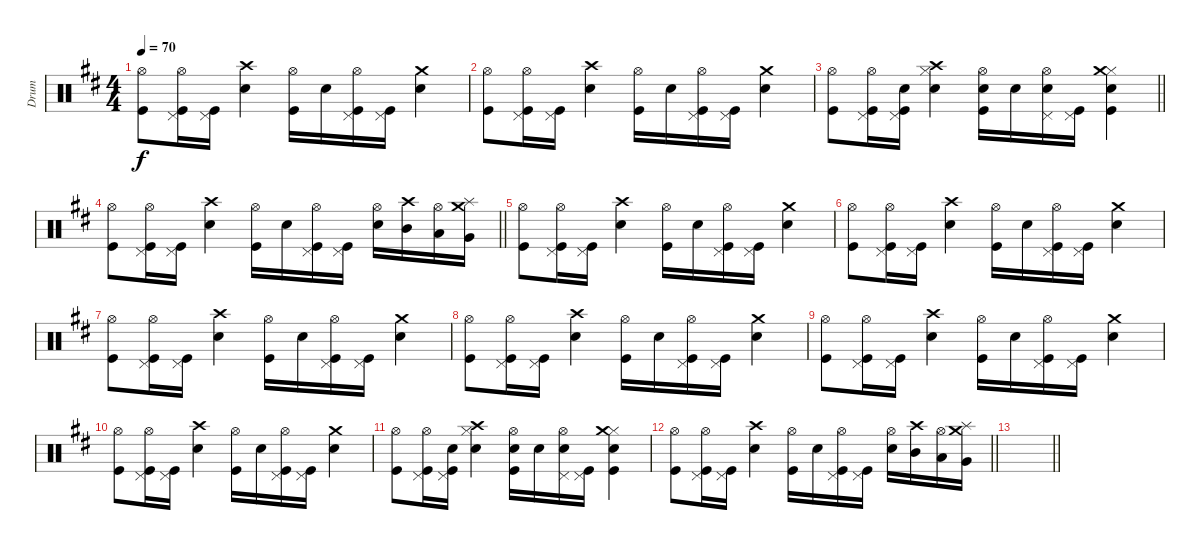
\track ("Drum" "Drum") {instrument percussion}
\staff {score}
\articulation defaults
\ts (4 4)
\tempo 70
\clef neutral
\ks d
("Kick (hit)" "Hi-Hat (open)").8{dy f} ("Kick (hit)" "Pedal Hi-Hat (hit)" "Hi-Hat (open)").16 ("Kick (hit)" "Pedal Hi-Hat (hit)").16 ("Snare (hit) 2" "Crash high (hit)").4 ("Kick (hit)" "Hi-Hat (open)").16 "Snare (hit) 2".16 ("Kick (hit)" "Pedal Hi-Hat (hit)" "Hi-Hat (open)").16 ("Kick (hit)" "Pedal Hi-Hat (hit)").16 ("Snare (hit) 2" "Crash medium (hit)").4 |
("Kick (hit)" "Hi-Hat (open)").8 ("Kick (hit)" "Pedal Hi-Hat (hit)" "Hi-Hat (open)").16 ("Kick (hit)" "Pedal Hi-Hat (hit)").16 ("Snare (hit) 2" "Crash high (hit)").4 ("Kick (hit)" "Hi-Hat (open)").16 "Snare (hit) 2".16 ("Kick (hit)" "Pedal Hi-Hat (hit)" "Hi-Hat (open)").16 ("Kick (hit)" "Pedal Hi-Hat (hit)").16 ("Snare (hit) 2" "Crash medium (hit)").4 |
\barLineRight lightlight
("Kick (hit)" "Hi-Hat (open)").8 ("Kick (hit)" "Pedal Hi-Hat (hit)" "Hi-Hat (open)").16 ("Kick (hit)" "Snare (hit) 2" "Pedal Hi-Hat (hit)").16 ("Snare (hit) 2" "Hi-Hat (closed)" "Crash high (hit)").4 ("Kick (hit)" "Snare (hit) 2" "Hi-Hat (open)").16 "Snare (hit) 2".16 ("Pedal Hi-Hat (hit)" "Snare (hit) 2" "Hi-Hat (open)").16 ("Kick (hit)" "Pedal Hi-Hat (hit)").16 ("Snare (hit) 2" "Kick (hit)" "Hi-Hat (closed)" "Crash medium (hit)").4 |
\barLineRight lightlight
("Kick (hit)" "Hi-Hat (open)").8 ("Kick (hit)" "Pedal Hi-Hat (hit)" "Hi-Hat (open)").16 ("Kick (hit)" "Pedal Hi-Hat (hit)").16 ("Snare (hit) 2" "Crash high (hit)").4 ("Kick (hit)" "Hi-Hat (open)").16 "Snare (hit) 2".16 ("Kick (hit)" "Pedal Hi-Hat (hit)" "Hi-Hat (open)").16 ("Kick (hit)" "Pedal Hi-Hat (hit)").16 ("Hi-Hat (open)" "Snare (hit) 2").16 ("Crash high (hit)" "Mid Tom (hit)").16 ("Hi-Hat (open)" "Low Tom (hit)").16 ("Splash (hit)" "Crash medium (hit)" "Very Low Tom (hit)").16 |
("Kick (hit)" "Hi-Hat (open)").8 ("Kick (hit)" "Pedal Hi-Hat (hit)" "Hi-Hat (open)").16 ("Kick (hit)" "Pedal Hi-Hat (hit)").16 ("Snare (hit) 2" "Crash high (hit)").4 ("Kick (hit)" "Hi-Hat (open)").16 "Snare (hit) 2".16 ("Kick (hit)" "Pedal Hi-Hat (hit)" "Hi-Hat (open)").16 ("Kick (hit)" "Pedal Hi-Hat (hit)").16 ("Snare (hit) 2" "Crash medium (hit)").4 |
("Kick (hit)" "Hi-Hat (open)").8 ("Kick (hit)" "Pedal Hi-Hat (hit)" "Hi-Hat (open)").16 ("Kick (hit)" "Pedal Hi-Hat (hit)").16 ("Snare (hit) 2" "Crash high (hit)").4 ("Kick (hit)" "Hi-Hat (open)").16 "Snare (hit) 2".16 ("Kick (hit)" "Pedal Hi-Hat (hit)" "Hi-Hat (open)").16 ("Kick (hit)" "Pedal Hi-Hat (hit)").16 ("Snare (hit) 2" "Crash medium (hit)").4 |
("Kick (hit)" "Hi-Hat (open)").8 ("Kick (hit)" "Pedal Hi-Hat (hit)" "Hi-Hat (open)").16 ("Kick (hit)" "Pedal Hi-Hat (hit)").16 ("Snare (hit) 2" "Crash high (hit)").4 ("Kick (hit)" "Hi-Hat (open)").16 "Snare (hit) 2".16 ("Kick (hit)" "Pedal Hi-Hat (hit)" "Hi-Hat (open)").16 ("Kick (hit)" "Pedal Hi-Hat (hit)").16 ("Snare (hit) 2" "Crash medium (hit)").4 |
("Kick (hit)" "Hi-Hat (open)").8 ("Kick (hit)" "Pedal Hi-Hat (hit)" "Hi-Hat (open)").16 ("Kick (hit)" "Pedal Hi-Hat (hit)").16 ("Snare (hit) 2" "Crash high (hit)").4 ("Kick (hit)" "Hi-Hat (open)").16 "Snare (hit) 2".16 ("Kick (hit)" "Pedal Hi-Hat (hit)" "Hi-Hat (open)").16 ("Kick (hit)" "Pedal Hi-Hat (hit)").16 ("Snare (hit) 2" "Crash medium (hit)").4 |
("Kick (hit)" "Hi-Hat (open)").8 ("Kick (hit)" "Pedal Hi-Hat (hit)" "Hi-Hat (open)").16 ("Kick (hit)" "Pedal Hi-Hat (hit)").16 ("Snare (hit) 2" "Crash high (hit)").4 ("Kick (hit)" "Hi-Hat (open)").16 "Snare (hit) 2".16 ("Kick (hit)" "Pedal Hi-Hat (hit)" "Hi-Hat (open)").16 ("Kick (hit)" "Pedal Hi-Hat (hit)").16 ("Snare (hit) 2" "Crash medium (hit)").4 |
("Kick (hit)" "Hi-Hat (open)").8 ("Kick (hit)" "Pedal Hi-Hat (hit)" "Hi-Hat (open)").16 ("Kick (hit)" "Pedal Hi-Hat (hit)").16 ("Snare (hit) 2" "Crash high (hit)").4 ("Kick (hit)" "Hi-Hat (open)").16 "Snare (hit) 2".16 ("Kick (hit)" "Pedal Hi-Hat (hit)" "Hi-Hat (open)").16 ("Kick (hit)" "Pedal Hi-Hat (hit)").16 ("Snare (hit) 2" "Crash medium (hit)").4 |
("Kick (hit)" "Hi-Hat (open)").8 ("Kick (hit)" "Pedal Hi-Hat (hit)" "Hi-Hat (open)").16 ("Kick (hit)" "Snare (hit) 2" "Pedal Hi-Hat (hit)").16 ("Snare (hit) 2" "Hi-Hat (closed)" "Crash high (hit)").4 ("Kick (hit)" "Snare (hit) 2" "Hi-Hat (open)").16 "Snare (hit) 2".16 ("Pedal Hi-Hat (hit)" "Snare (hit) 2" "Hi-Hat (open)").16 ("Kick (hit)" "Pedal Hi-Hat (hit)").16 ("Snare (hit) 2" "Kick (hit)" "Hi-Hat (closed)" "Crash medium (hit)").4 |
\barLineRight lightlight
("Kick (hit)" "Hi-Hat (open)").8 ("Kick (hit)" "Pedal Hi-Hat (hit)" "Hi-Hat (open)").16 ("Kick (hit)" "Pedal Hi-Hat (hit)").16 ("Snare (hit) 2" "Crash high (hit)").4 ("Kick (hit)" "Hi-Hat (open)").16 "Snare (hit) 2".16 ("Kick (hit)" "Pedal Hi-Hat (hit)" "Hi-Hat (open)").16 ("Kick (hit)" "Pedal Hi-Hat (hit)").16 ("Hi-Hat (open)" "Snare (hit) 2").16 ("Crash high (hit)" "Mid Tom (hit)").16 ("Hi-Hat (open)" "Low Tom (hit)").16 ("Splash (hit)" "Crash medium (hit)" "Very Low Tom (hit)").16 |
\barLineRight lightlight
